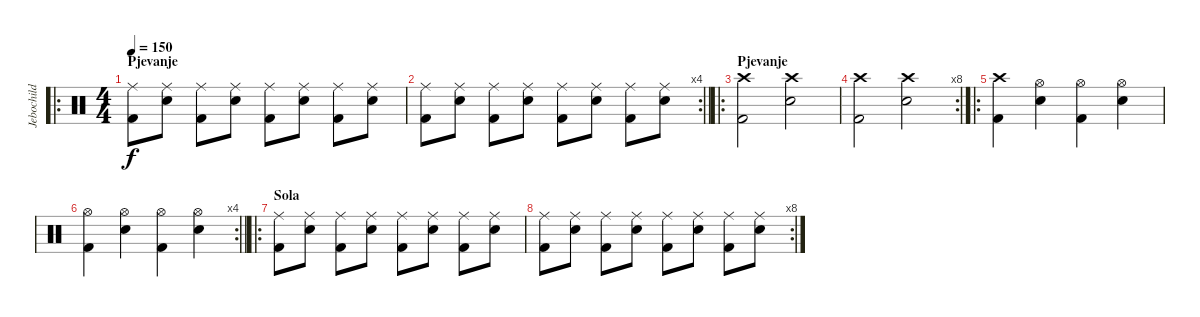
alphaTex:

\track ("Jebochild - Dragan" "Jebochild ") {instrument percussion}
\staff {score}
\articulation defaults
\ro
\ts (4 4)
\section ("" "Pjevanje")
\tempo 150
\clef neutral
\ks c
("Ride (middle)" "Kick (hit) 2").8{dy f} ("Ride (middle)" "Electric Snare (hit)").8 ("Ride (middle)" "Kick (hit) 2").8 ("Ride (middle)" "Electric Snare (hit)").8 ("Ride (middle)" "Kick (hit) 2").8 ("Ride (middle)" "Electric Snare (hit)").8 ("Ride (middle)" "Kick (hit) 2").8 ("Ride (middle)" "Electric Snare (hit)").8 |
\rc 4
\barLineRight lightlight
("Ride (middle)" "Kick (hit) 2").8 ("Ride (middle)" "Electric Snare (hit)").8 ("Ride (middle)" "Kick (hit) 2").8 ("Ride (middle)" "Electric Snare (hit)").8 ("Ride (middle)" "Kick (hit) 2").8 ("Ride (middle)" "Electric Snare (hit)").8 ("Ride (middle)" "Kick (hit) 2").8 ("Ride (middle)" "Electric Snare (hit)").8 |
\ro
\section ("" "Pjevanje")
("Crash high (hit)" "Kick (hit) 2").2 ("Crash high (hit)" "Electric Snare (hit)").2 |
\rc 8
("Crash high (hit)" "Kick (hit) 2").2 ("Crash high (hit)" "Electric Snare (hit)").2 |
\ro
("Crash high (hit)" "Kick (hit) 2").4 ("Hi-Hat (open)" "Electric Snare (hit)").4 ("Hi-Hat (open)" "Kick (hit) 2").4 ("Hi-Hat (open)" "Electric Snare (hit)").4 |
\rc 4
\barLineRight lightlight
("Hi-Hat (open)" "Kick (hit) 2").4 ("Hi-Hat (open)" "Electric Snare (hit)").4 ("Hi-Hat (open)" "Kick (hit) 2").4 ("Hi-Hat (open)" "Electric Snare (hit)").4 |
\ro
\section ("" "Sola")
("Ride (middle)" "Kick (hit) 2").8 ("Ride (middle)" "Electric Snare (hit)").8 ("Ride (middle)" "Kick (hit) 2").8 ("Ride (middle)" "Electric Snare (hit)").8 ("Ride (middle)" "Kick (hit) 2").8 ("Ride (middle)" "Electric Snare (hit)").8 ("Ride (middle)" "Kick (hit) 2").8 ("Ride (middle)" "Electric Snare (hit)").8 |
\rc 8
("Ride (middle)" "Kick (hit) 2").8 ("Ride (middle)" "Electric Snare (hit)").8 ("Ride (middle)" "Kick (hit) 2").8 ("Ride (middle)" "Electric Snare (hit)").8 ("Ride (middle)" "Kick (hit) 2").8 ("Ride (middle)" "Electric Snare (hit)").8 ("Ride (middle)" "Kick (hit) 2").8 ("Ride (middle)" "Electric Snare (hit)").8
